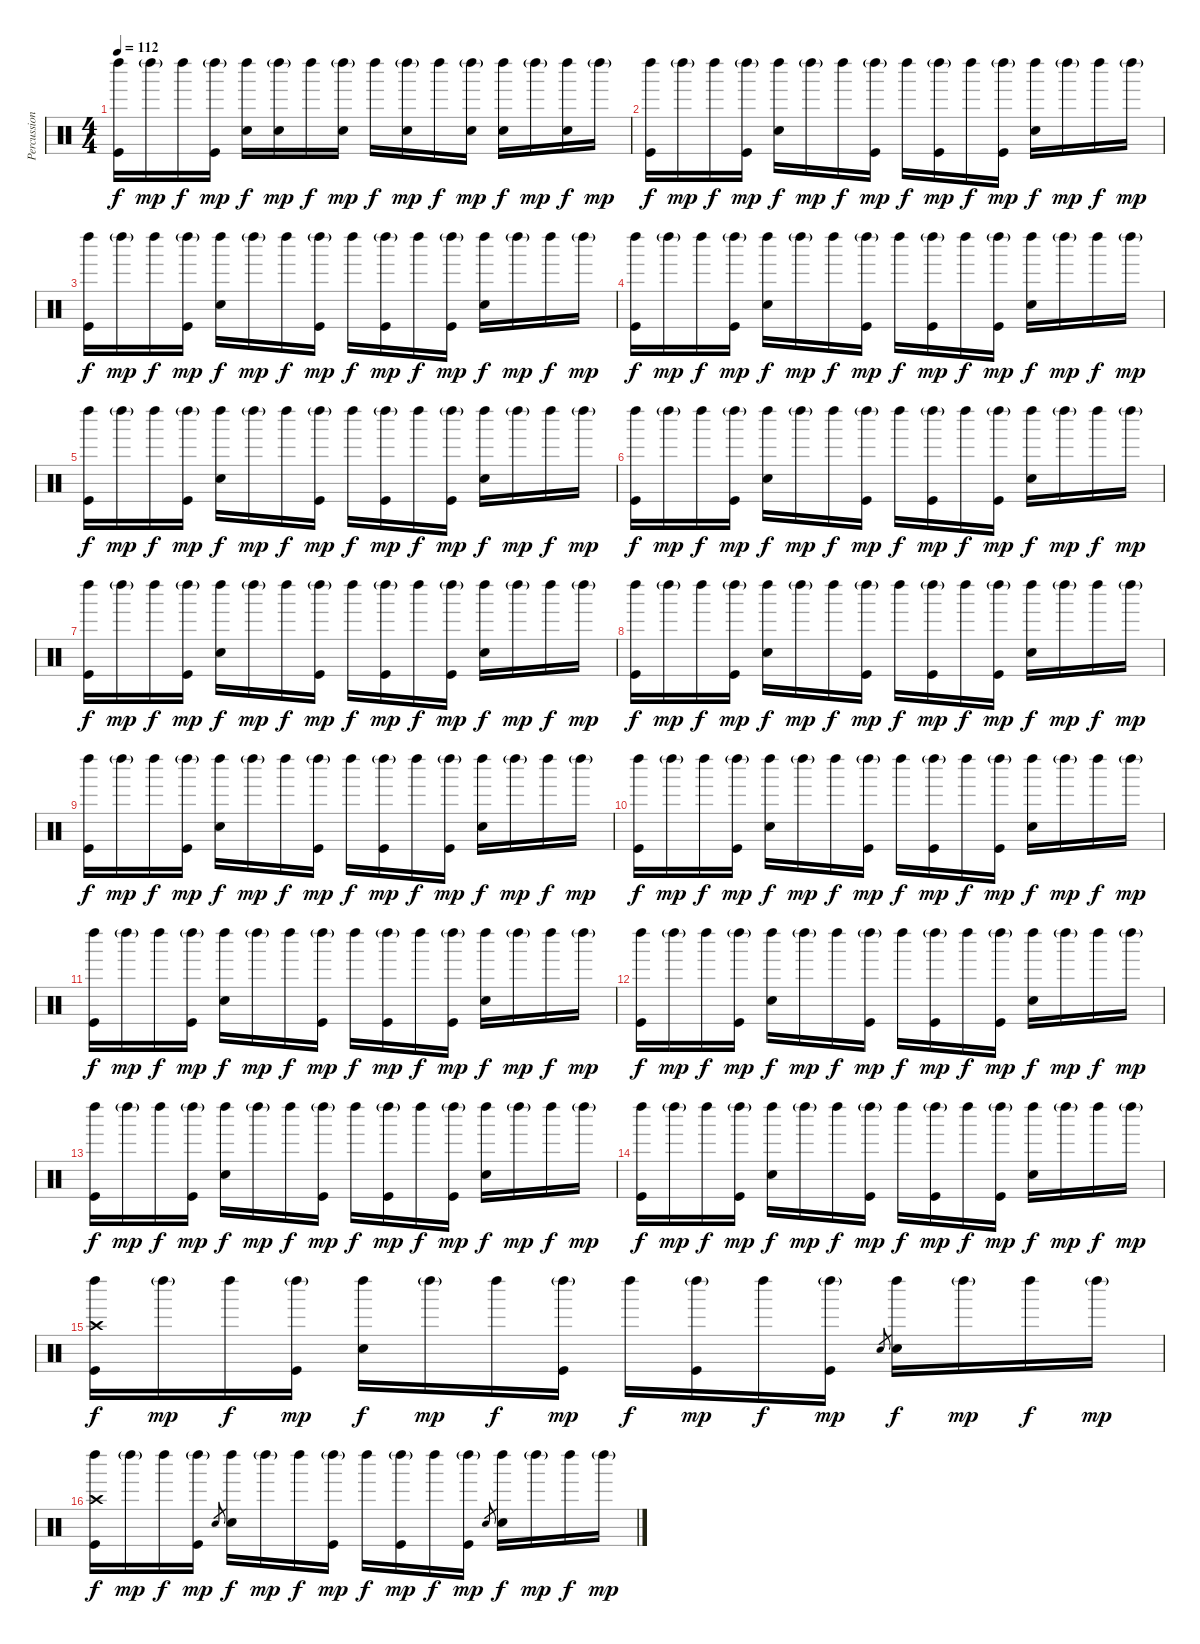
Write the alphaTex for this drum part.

\track ("Percussion" "Percussion") {instrument percussion}
\staff {score}
\articulation defaults
\ts (4 4)
\tempo 112
\clef neutral
\ks c
("Left Maraca (hit)" "Kick (hit)").16{dy f} "Left Maraca (hit)"{g}.16{dy mp} "Left Maraca (hit)".16{dy f} ("Left Maraca (hit)"{g} "Kick (hit)").16{dy mp} ("Left Maraca (hit)" "Snare (hit) 2").16{dy f} ("Left Maraca (hit)"{g} "Snare (hit) 2").16{dy mp} "Left Maraca (hit)".16{dy f} ("Left Maraca (hit)"{g} "Snare (hit) 2").16{dy mp} "Left Maraca (hit)".16{dy f} ("Left Maraca (hit)"{g} "Snare (hit) 2").16{dy mp} "Left Maraca (hit)".16{dy f} ("Left Maraca (hit)"{g} "Snare (hit) 2").16{dy mp} ("Left Maraca (hit)" "Snare (hit) 2").16{dy f} "Left Maraca (hit)"{g}.16{dy mp} ("Left Maraca (hit)" "Snare (hit) 2").16{dy f} "Left Maraca (hit)"{g}.16{dy mp} |
("Left Maraca (hit)" "Kick (hit)").16{dy f} "Left Maraca (hit)"{g}.16{dy mp} "Left Maraca (hit)".16{dy f} ("Left Maraca (hit)"{g} "Kick (hit)").16{dy mp} ("Left Maraca (hit)" "Snare (hit) 2").16{dy f} "Left Maraca (hit)"{g}.16{dy mp} "Left Maraca (hit)".16{dy f} ("Left Maraca (hit)"{g} "Kick (hit)").16{dy mp} "Left Maraca (hit)".16{dy f} ("Left Maraca (hit)"{g} "Kick (hit)").16{dy mp} "Left Maraca (hit)".16{dy f} ("Left Maraca (hit)"{g} "Kick (hit)").16{dy mp} ("Left Maraca (hit)" "Snare (hit) 2").16{dy f} "Left Maraca (hit)"{g}.16{dy mp} "Left Maraca (hit)".16{dy f} "Left Maraca (hit)"{g}.16{dy mp} |
("Left Maraca (hit)" "Kick (hit)").16{dy f} "Left Maraca (hit)"{g}.16{dy mp} "Left Maraca (hit)".16{dy f} ("Left Maraca (hit)"{g} "Kick (hit)").16{dy mp} ("Left Maraca (hit)" "Snare (hit) 2").16{dy f} "Left Maraca (hit)"{g}.16{dy mp} "Left Maraca (hit)".16{dy f} ("Left Maraca (hit)"{g} "Kick (hit)").16{dy mp} "Left Maraca (hit)".16{dy f} ("Left Maraca (hit)"{g} "Kick (hit)").16{dy mp} "Left Maraca (hit)".16{dy f} ("Left Maraca (hit)"{g} "Kick (hit)").16{dy mp} ("Left Maraca (hit)" "Snare (hit) 2").16{dy f} "Left Maraca (hit)"{g}.16{dy mp} "Left Maraca (hit)".16{dy f} "Left Maraca (hit)"{g}.16{dy mp} |
("Left Maraca (hit)" "Kick (hit)").16{dy f} "Left Maraca (hit)"{g}.16{dy mp} "Left Maraca (hit)".16{dy f} ("Left Maraca (hit)"{g} "Kick (hit)").16{dy mp} ("Left Maraca (hit)" "Snare (hit) 2").16{dy f} "Left Maraca (hit)"{g}.16{dy mp} "Left Maraca (hit)".16{dy f} ("Left Maraca (hit)"{g} "Kick (hit)").16{dy mp} "Left Maraca (hit)".16{dy f} ("Left Maraca (hit)"{g} "Kick (hit)").16{dy mp} "Left Maraca (hit)".16{dy f} ("Left Maraca (hit)"{g} "Kick (hit)").16{dy mp} ("Left Maraca (hit)" "Snare (hit) 2").16{dy f} "Left Maraca (hit)"{g}.16{dy mp} "Left Maraca (hit)".16{dy f} "Left Maraca (hit)"{g}.16{dy mp} |
("Left Maraca (hit)" "Kick (hit)").16{dy f} "Left Maraca (hit)"{g}.16{dy mp} "Left Maraca (hit)".16{dy f} ("Left Maraca (hit)"{g} "Kick (hit)").16{dy mp} ("Left Maraca (hit)" "Snare (hit) 2").16{dy f} "Left Maraca (hit)"{g}.16{dy mp} "Left Maraca (hit)".16{dy f} ("Left Maraca (hit)"{g} "Kick (hit)").16{dy mp} "Left Maraca (hit)".16{dy f} ("Left Maraca (hit)"{g} "Kick (hit)").16{dy mp} "Left Maraca (hit)".16{dy f} ("Left Maraca (hit)"{g} "Kick (hit)").16{dy mp} ("Left Maraca (hit)" "Snare (hit) 2").16{dy f} "Left Maraca (hit)"{g}.16{dy mp} "Left Maraca (hit)".16{dy f} "Left Maraca (hit)"{g}.16{dy mp} |
("Left Maraca (hit)" "Kick (hit)").16{dy f} "Left Maraca (hit)"{g}.16{dy mp} "Left Maraca (hit)".16{dy f} ("Left Maraca (hit)"{g} "Kick (hit)").16{dy mp} ("Left Maraca (hit)" "Snare (hit) 2").16{dy f} "Left Maraca (hit)"{g}.16{dy mp} "Left Maraca (hit)".16{dy f} ("Left Maraca (hit)"{g} "Kick (hit)").16{dy mp} "Left Maraca (hit)".16{dy f} ("Left Maraca (hit)"{g} "Kick (hit)").16{dy mp} "Left Maraca (hit)".16{dy f} ("Left Maraca (hit)"{g} "Kick (hit)").16{dy mp} ("Left Maraca (hit)" "Snare (hit) 2").16{dy f} "Left Maraca (hit)"{g}.16{dy mp} "Left Maraca (hit)".16{dy f} "Left Maraca (hit)"{g}.16{dy mp} |
("Left Maraca (hit)" "Kick (hit)").16{dy f} "Left Maraca (hit)"{g}.16{dy mp} "Left Maraca (hit)".16{dy f} ("Left Maraca (hit)"{g} "Kick (hit)").16{dy mp} ("Left Maraca (hit)" "Snare (hit) 2").16{dy f} "Left Maraca (hit)"{g}.16{dy mp} "Left Maraca (hit)".16{dy f} ("Left Maraca (hit)"{g} "Kick (hit)").16{dy mp} "Left Maraca (hit)".16{dy f} ("Left Maraca (hit)"{g} "Kick (hit)").16{dy mp} "Left Maraca (hit)".16{dy f} ("Left Maraca (hit)"{g} "Kick (hit)").16{dy mp} ("Left Maraca (hit)" "Snare (hit) 2").16{dy f} "Left Maraca (hit)"{g}.16{dy mp} "Left Maraca (hit)".16{dy f} "Left Maraca (hit)"{g}.16{dy mp} |
("Left Maraca (hit)" "Kick (hit)").16{dy f} "Left Maraca (hit)"{g}.16{dy mp} "Left Maraca (hit)".16{dy f} ("Left Maraca (hit)"{g} "Kick (hit)").16{dy mp} ("Left Maraca (hit)" "Snare (hit) 2").16{dy f} "Left Maraca (hit)"{g}.16{dy mp} "Left Maraca (hit)".16{dy f} ("Left Maraca (hit)"{g} "Kick (hit)").16{dy mp} "Left Maraca (hit)".16{dy f} ("Left Maraca (hit)"{g} "Kick (hit)").16{dy mp} "Left Maraca (hit)".16{dy f} ("Left Maraca (hit)"{g} "Kick (hit)").16{dy mp} ("Left Maraca (hit)" "Snare (hit) 2").16{dy f} "Left Maraca (hit)"{g}.16{dy mp} "Left Maraca (hit)".16{dy f} "Left Maraca (hit)"{g}.16{dy mp} |
("Left Maraca (hit)" "Kick (hit)").16{dy f} "Left Maraca (hit)"{g}.16{dy mp} "Left Maraca (hit)".16{dy f} ("Left Maraca (hit)"{g} "Kick (hit)").16{dy mp} ("Left Maraca (hit)" "Snare (hit) 2").16{dy f} "Left Maraca (hit)"{g}.16{dy mp} "Left Maraca (hit)".16{dy f} ("Left Maraca (hit)"{g} "Kick (hit)").16{dy mp} "Left Maraca (hit)".16{dy f} ("Left Maraca (hit)"{g} "Kick (hit)").16{dy mp} "Left Maraca (hit)".16{dy f} ("Left Maraca (hit)"{g} "Kick (hit)").16{dy mp} ("Left Maraca (hit)" "Snare (hit) 2").16{dy f} "Left Maraca (hit)"{g}.16{dy mp} "Left Maraca (hit)".16{dy f} "Left Maraca (hit)"{g}.16{dy mp} |
("Left Maraca (hit)" "Kick (hit)").16{dy f} "Left Maraca (hit)"{g}.16{dy mp} "Left Maraca (hit)".16{dy f} ("Left Maraca (hit)"{g} "Kick (hit)").16{dy mp} ("Left Maraca (hit)" "Snare (hit) 2").16{dy f} "Left Maraca (hit)"{g}.16{dy mp} "Left Maraca (hit)".16{dy f} ("Left Maraca (hit)"{g} "Kick (hit)").16{dy mp} "Left Maraca (hit)".16{dy f} ("Left Maraca (hit)"{g} "Kick (hit)").16{dy mp} "Left Maraca (hit)".16{dy f} ("Left Maraca (hit)"{g} "Kick (hit)").16{dy mp} ("Left Maraca (hit)" "Snare (hit) 2").16{dy f} "Left Maraca (hit)"{g}.16{dy mp} "Left Maraca (hit)".16{dy f} "Left Maraca (hit)"{g}.16{dy mp} |
("Left Maraca (hit)" "Kick (hit)").16{dy f} "Left Maraca (hit)"{g}.16{dy mp} "Left Maraca (hit)".16{dy f} ("Left Maraca (hit)"{g} "Kick (hit)").16{dy mp} ("Left Maraca (hit)" "Snare (hit) 2").16{dy f} "Left Maraca (hit)"{g}.16{dy mp} "Left Maraca (hit)".16{dy f} ("Left Maraca (hit)"{g} "Kick (hit)").16{dy mp} "Left Maraca (hit)".16{dy f} ("Left Maraca (hit)"{g} "Kick (hit)").16{dy mp} "Left Maraca (hit)".16{dy f} ("Left Maraca (hit)"{g} "Kick (hit)").16{dy mp} ("Left Maraca (hit)" "Snare (hit) 2").16{dy f} "Left Maraca (hit)"{g}.16{dy mp} "Left Maraca (hit)".16{dy f} "Left Maraca (hit)"{g}.16{dy mp} |
("Left Maraca (hit)" "Kick (hit)").16{dy f} "Left Maraca (hit)"{g}.16{dy mp} "Left Maraca (hit)".16{dy f} ("Left Maraca (hit)"{g} "Kick (hit)").16{dy mp} ("Left Maraca (hit)" "Snare (hit) 2").16{dy f} "Left Maraca (hit)"{g}.16{dy mp} "Left Maraca (hit)".16{dy f} ("Left Maraca (hit)"{g} "Kick (hit)").16{dy mp} "Left Maraca (hit)".16{dy f} ("Left Maraca (hit)"{g} "Kick (hit)").16{dy mp} "Left Maraca (hit)".16{dy f} ("Left Maraca (hit)"{g} "Kick (hit)").16{dy mp} ("Left Maraca (hit)" "Snare (hit) 2").16{dy f} "Left Maraca (hit)"{g}.16{dy mp} "Left Maraca (hit)".16{dy f} "Left Maraca (hit)"{g}.16{dy mp} |
("Left Maraca (hit)" "Kick (hit)").16{dy f} "Left Maraca (hit)"{g}.16{dy mp} "Left Maraca (hit)".16{dy f} ("Left Maraca (hit)"{g} "Kick (hit)").16{dy mp} ("Left Maraca (hit)" "Snare (hit) 2").16{dy f} "Left Maraca (hit)"{g}.16{dy mp} "Left Maraca (hit)".16{dy f} ("Left Maraca (hit)"{g} "Kick (hit)").16{dy mp} "Left Maraca (hit)".16{dy f} ("Left Maraca (hit)"{g} "Kick (hit)").16{dy mp} "Left Maraca (hit)".16{dy f} ("Left Maraca (hit)"{g} "Kick (hit)").16{dy mp} ("Left Maraca (hit)" "Snare (hit) 2").16{dy f} "Left Maraca (hit)"{g}.16{dy mp} "Left Maraca (hit)".16{dy f} "Left Maraca (hit)"{g}.16{dy mp} |
("Left Maraca (hit)" "Kick (hit)").16{dy f} "Left Maraca (hit)"{g}.16{dy mp} "Left Maraca (hit)".16{dy f} ("Left Maraca (hit)"{g} "Kick (hit)").16{dy mp} ("Left Maraca (hit)" "Snare (hit) 2").16{dy f} "Left Maraca (hit)"{g}.16{dy mp} "Left Maraca (hit)".16{dy f} ("Left Maraca (hit)"{g} "Kick (hit)").16{dy mp} "Left Maraca (hit)".16{dy f} ("Left Maraca (hit)"{g} "Kick (hit)").16{dy mp} "Left Maraca (hit)".16{dy f} ("Left Maraca (hit)"{g} "Kick (hit)").16{dy mp} ("Left Maraca (hit)" "Snare (hit) 2").16{dy f} "Left Maraca (hit)"{g}.16{dy mp} "Left Maraca (hit)".16{dy f} "Left Maraca (hit)"{g}.16{dy mp} |
("Crash high (hit)" "Left Maraca (hit)" "Kick (hit)").16{dy f} "Left Maraca (hit)"{g}.16{dy mp} "Left Maraca (hit)".16{dy f} ("Left Maraca (hit)"{g} "Kick (hit)").16{dy mp} ("Left Maraca (hit)" "Snare (hit) 2").16{dy f} "Left Maraca (hit)"{g}.16{dy mp} "Left Maraca (hit)".16{dy f} ("Left Maraca (hit)"{g} "Kick (hit)").16{dy mp} "Left Maraca (hit)".16{dy f} ("Left Maraca (hit)"{g} "Kick (hit)").16{dy mp} "Left Maraca (hit)".16{dy f} ("Left Maraca (hit)"{g} "Kick (hit)").16{dy mp} "Snare (hit) 2".8{gr} ("Left Maraca (hit)" "Snare (hit) 2").16{dy f} "Left Maraca (hit)"{g}.16{dy mp} "Left Maraca (hit)".16{dy f} "Left Maraca (hit)"{g}.16{dy mp} |
("Crash high (hit)" "Left Maraca (hit)" "Kick (hit)").16{dy f} "Left Maraca (hit)"{g}.16{dy mp} "Left Maraca (hit)".16{dy f} ("Left Maraca (hit)"{g} "Kick (hit)").16{dy mp} "Snare (hit) 2".8{gr} ("Left Maraca (hit)" "Snare (hit) 2").16{dy f} "Left Maraca (hit)"{g}.16{dy mp} "Left Maraca (hit)".16{dy f} ("Left Maraca (hit)"{g} "Kick (hit)").16{dy mp} "Left Maraca (hit)".16{dy f} ("Left Maraca (hit)"{g} "Kick (hit)").16{dy mp} "Left Maraca (hit)".16{dy f} ("Left Maraca (hit)"{g} "Kick (hit)").16{dy mp} "Snare (hit) 2".8{gr} ("Left Maraca (hit)" "Snare (hit) 2").16{dy f} "Left Maraca (hit)"{g}.16{dy mp} "Left Maraca (hit)".16{dy f} "Left Maraca (hit)"{g}.16{dy mp}
